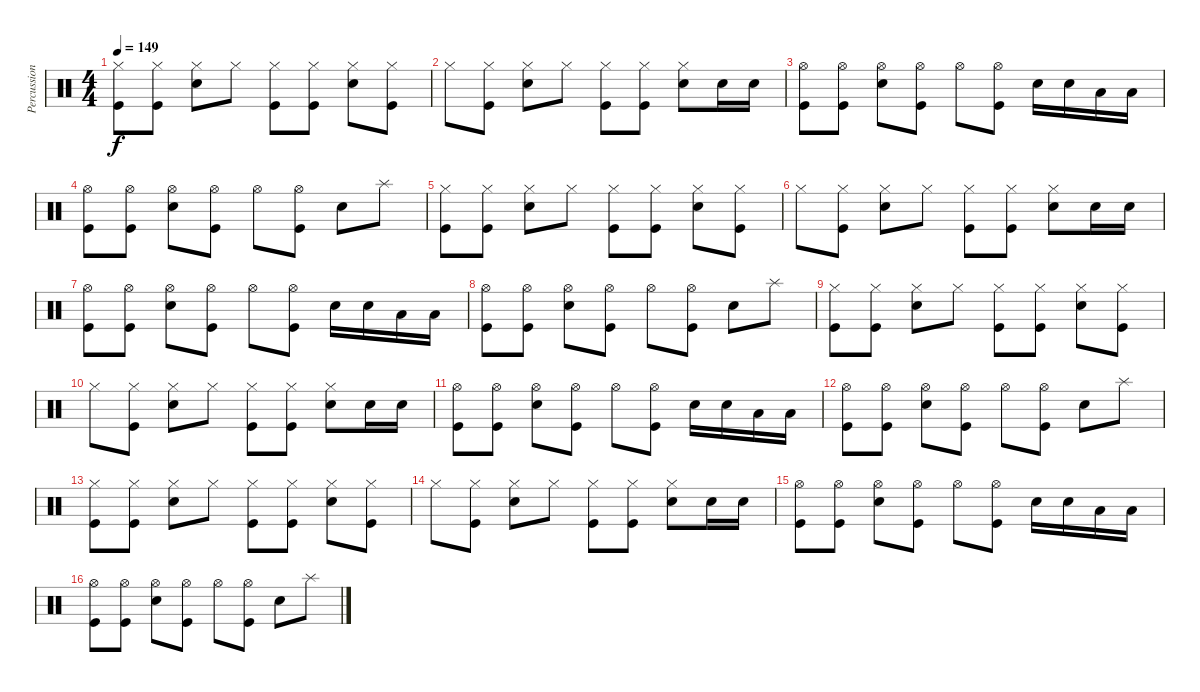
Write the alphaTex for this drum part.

\track ("Percussion" "Percussion") {instrument percussion}
\staff {score}
\articulation defaults
\ts (4 4)
\tempo 149
\clef neutral
\ks c
("Hi-Hat (closed)" "Kick (hit)").8{dy f} ("Hi-Hat (closed)" "Kick (hit)").8 ("Hi-Hat (closed)" "Snare (hit) 2").8 "Hi-Hat (closed)".8 ("Hi-Hat (closed)" "Kick (hit)").8 ("Hi-Hat (closed)" "Kick (hit)").8 ("Hi-Hat (closed)" "Snare (hit) 2").8 ("Hi-Hat (closed)" "Kick (hit)").8 |
"Hi-Hat (closed)".8 ("Hi-Hat (closed)" "Kick (hit)").8 ("Hi-Hat (closed)" "Snare (hit) 2").8 "Hi-Hat (closed)".8 ("Hi-Hat (closed)" "Kick (hit)").8 ("Hi-Hat (closed)" "Kick (hit)").8 ("Hi-Hat (closed)" "Snare (hit) 2").8 "Snare (hit) 2".16 "Snare (hit) 2".16 |
("Hi-Hat (open)" "Kick (hit)").8 ("Hi-Hat (open)" "Kick (hit)").8 ("Hi-Hat (open)" "Snare (hit) 2").8 ("Hi-Hat (open)" "Kick (hit)").8 "Hi-Hat (open)".8 ("Hi-Hat (open)" "Kick (hit)").8 "Snare (hit) 2".16 "Snare (hit) 2".16 "Low Tom (hit)".16 "Low Tom (hit)".16 |
("Hi-Hat (open)" "Kick (hit)").8 ("Hi-Hat (open)" "Kick (hit)").8 ("Hi-Hat (open)" "Snare (hit) 2").8 ("Hi-Hat (open)" "Kick (hit)").8 "Hi-Hat (open)".8 ("Hi-Hat (open)" "Kick (hit)").8 "Snare (hit) 2".8 "Splash (hit)".8 |
("Hi-Hat (closed)" "Kick (hit)").8 ("Hi-Hat (closed)" "Kick (hit)").8 ("Hi-Hat (closed)" "Snare (hit) 2").8 "Hi-Hat (closed)".8 ("Hi-Hat (closed)" "Kick (hit)").8 ("Hi-Hat (closed)" "Kick (hit)").8 ("Hi-Hat (closed)" "Snare (hit) 2").8 ("Hi-Hat (closed)" "Kick (hit)").8 |
"Hi-Hat (closed)".8 ("Hi-Hat (closed)" "Kick (hit)").8 ("Hi-Hat (closed)" "Snare (hit) 2").8 "Hi-Hat (closed)".8 ("Hi-Hat (closed)" "Kick (hit)").8 ("Hi-Hat (closed)" "Kick (hit)").8 ("Hi-Hat (closed)" "Snare (hit) 2").8 "Snare (hit) 2".16 "Snare (hit) 2".16 |
("Hi-Hat (open)" "Kick (hit)").8 ("Hi-Hat (open)" "Kick (hit)").8 ("Hi-Hat (open)" "Snare (hit) 2").8 ("Hi-Hat (open)" "Kick (hit)").8 "Hi-Hat (open)".8 ("Hi-Hat (open)" "Kick (hit)").8 "Snare (hit) 2".16 "Snare (hit) 2".16 "Low Tom (hit)".16 "Low Tom (hit)".16 |
("Hi-Hat (open)" "Kick (hit)").8 ("Hi-Hat (open)" "Kick (hit)").8 ("Hi-Hat (open)" "Snare (hit) 2").8 ("Hi-Hat (open)" "Kick (hit)").8 "Hi-Hat (open)".8 ("Hi-Hat (open)" "Kick (hit)").8 "Snare (hit) 2".8 "Splash (hit)".8 |
("Hi-Hat (closed)" "Kick (hit)").8 ("Hi-Hat (closed)" "Kick (hit)").8 ("Hi-Hat (closed)" "Snare (hit) 2").8 "Hi-Hat (closed)".8 ("Hi-Hat (closed)" "Kick (hit)").8 ("Hi-Hat (closed)" "Kick (hit)").8 ("Hi-Hat (closed)" "Snare (hit) 2").8 ("Hi-Hat (closed)" "Kick (hit)").8 |
"Hi-Hat (closed)".8 ("Hi-Hat (closed)" "Kick (hit)").8 ("Hi-Hat (closed)" "Snare (hit) 2").8 "Hi-Hat (closed)".8 ("Hi-Hat (closed)" "Kick (hit)").8 ("Hi-Hat (closed)" "Kick (hit)").8 ("Hi-Hat (closed)" "Snare (hit) 2").8 "Snare (hit) 2".16 "Snare (hit) 2".16 |
("Hi-Hat (open)" "Kick (hit)").8 ("Hi-Hat (open)" "Kick (hit)").8 ("Hi-Hat (open)" "Snare (hit) 2").8 ("Hi-Hat (open)" "Kick (hit)").8 "Hi-Hat (open)".8 ("Hi-Hat (open)" "Kick (hit)").8 "Snare (hit) 2".16 "Snare (hit) 2".16 "Low Tom (hit)".16 "Low Tom (hit)".16 |
("Hi-Hat (open)" "Kick (hit)").8 ("Hi-Hat (open)" "Kick (hit)").8 ("Hi-Hat (open)" "Snare (hit) 2").8 ("Hi-Hat (open)" "Kick (hit)").8 "Hi-Hat (open)".8 ("Hi-Hat (open)" "Kick (hit)").8 "Snare (hit) 2".8 "Splash (hit)".8 |
("Hi-Hat (closed)" "Kick (hit)").8 ("Hi-Hat (closed)" "Kick (hit)").8 ("Hi-Hat (closed)" "Snare (hit) 2").8 "Hi-Hat (closed)".8 ("Hi-Hat (closed)" "Kick (hit)").8 ("Hi-Hat (closed)" "Kick (hit)").8 ("Hi-Hat (closed)" "Snare (hit) 2").8 ("Hi-Hat (closed)" "Kick (hit)").8 |
"Hi-Hat (closed)".8 ("Hi-Hat (closed)" "Kick (hit)").8 ("Hi-Hat (closed)" "Snare (hit) 2").8 "Hi-Hat (closed)".8 ("Hi-Hat (closed)" "Kick (hit)").8 ("Hi-Hat (closed)" "Kick (hit)").8 ("Hi-Hat (closed)" "Snare (hit) 2").8 "Snare (hit) 2".16 "Snare (hit) 2".16 |
("Hi-Hat (open)" "Kick (hit)").8 ("Hi-Hat (open)" "Kick (hit)").8 ("Hi-Hat (open)" "Snare (hit) 2").8 ("Hi-Hat (open)" "Kick (hit)").8 "Hi-Hat (open)".8 ("Hi-Hat (open)" "Kick (hit)").8 "Snare (hit) 2".16 "Snare (hit) 2".16 "Low Tom (hit)".16 "Low Tom (hit)".16 |
("Hi-Hat (open)" "Kick (hit)").8 ("Hi-Hat (open)" "Kick (hit)").8 ("Hi-Hat (open)" "Snare (hit) 2").8 ("Hi-Hat (open)" "Kick (hit)").8 "Hi-Hat (open)".8 ("Hi-Hat (open)" "Kick (hit)").8 "Snare (hit) 2".8 "Splash (hit)".8
